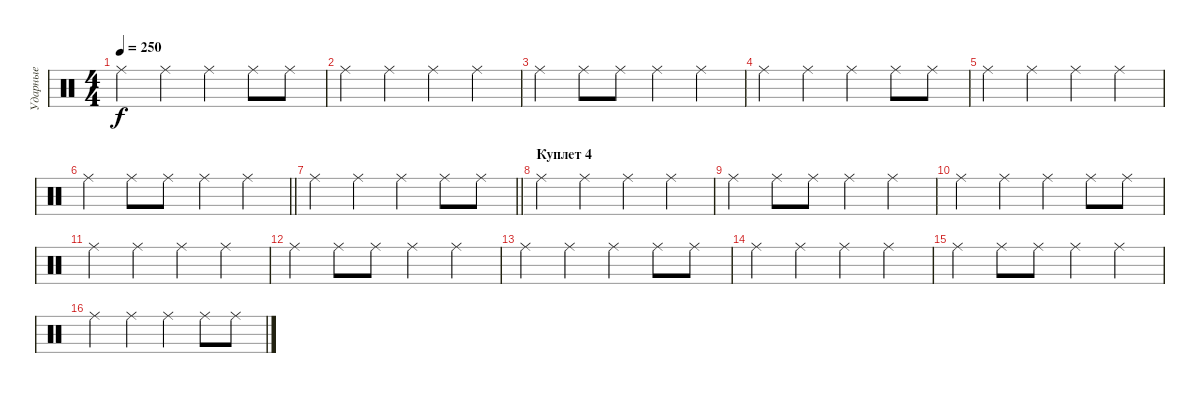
\track ("Ударные" "Ударные") {instrument percussion}
\staff {score}
\articulation defaults
\ts (4 4)
\tempo 250
\clef neutral
\ks c "Ride (middle)".4{dy f} "Ride (middle)".4 "Ride (middle)".4 "Ride (middle)".8 "Ride (middle)".8
|
"Ride (middle)".4 "Ride (middle)".4 "Ride (middle)".4 "Ride (middle)".4 |
"Ride (middle)".4 "Ride (middle)".8 "Ride (middle)".8 "Ride (middle)".4 "Ride (middle)".4 |
"Ride (middle)".4 "Ride (middle)".4 "Ride (middle)".4 "Ride (middle)".8 "Ride (middle)".8 |
"Ride (middle)".4 "Ride (middle)".4 "Ride (middle)".4 "Ride (middle)".4 |
\barLineRight lightlight "Ride (middle)".4 "Ride (middle)".8 "Ride (middle)".8 "Ride (middle)".4 "Ride (middle)".4
|
\barLineRight lightlight "Ride (middle)".4 "Ride (middle)".4 "Ride (middle)".4 "Ride (middle)".8 "Ride (middle)".8
|
\section ("" "Куплет 4")
"Ride (middle)".4 "Ride (middle)".4 "Ride (middle)".4 "Ride (middle)".4 |
"Ride (middle)".4 "Ride (middle)".8 "Ride (middle)".8 "Ride (middle)".4 "Ride (middle)".4 |
"Ride (middle)".4 "Ride (middle)".4 "Ride (middle)".4 "Ride (middle)".8 "Ride (middle)".8 |
"Ride (middle)".4 "Ride (middle)".4 "Ride (middle)".4 "Ride (middle)".4 |
"Ride (middle)".4 "Ride (middle)".8 "Ride (middle)".8 "Ride (middle)".4 "Ride (middle)".4 |
"Ride (middle)".4 "Ride (middle)".4 "Ride (middle)".4 "Ride (middle)".8 "Ride (middle)".8 |
"Ride (middle)".4 "Ride (middle)".4 "Ride (middle)".4 "Ride (middle)".4 |
"Ride (middle)".4 "Ride (middle)".8 "Ride (middle)".8 "Ride (middle)".4 "Ride (middle)".4 |
"Ride (middle)".4 "Ride (middle)".4 "Ride (middle)".4 "Ride (middle)".8 "Ride (middle)".8
